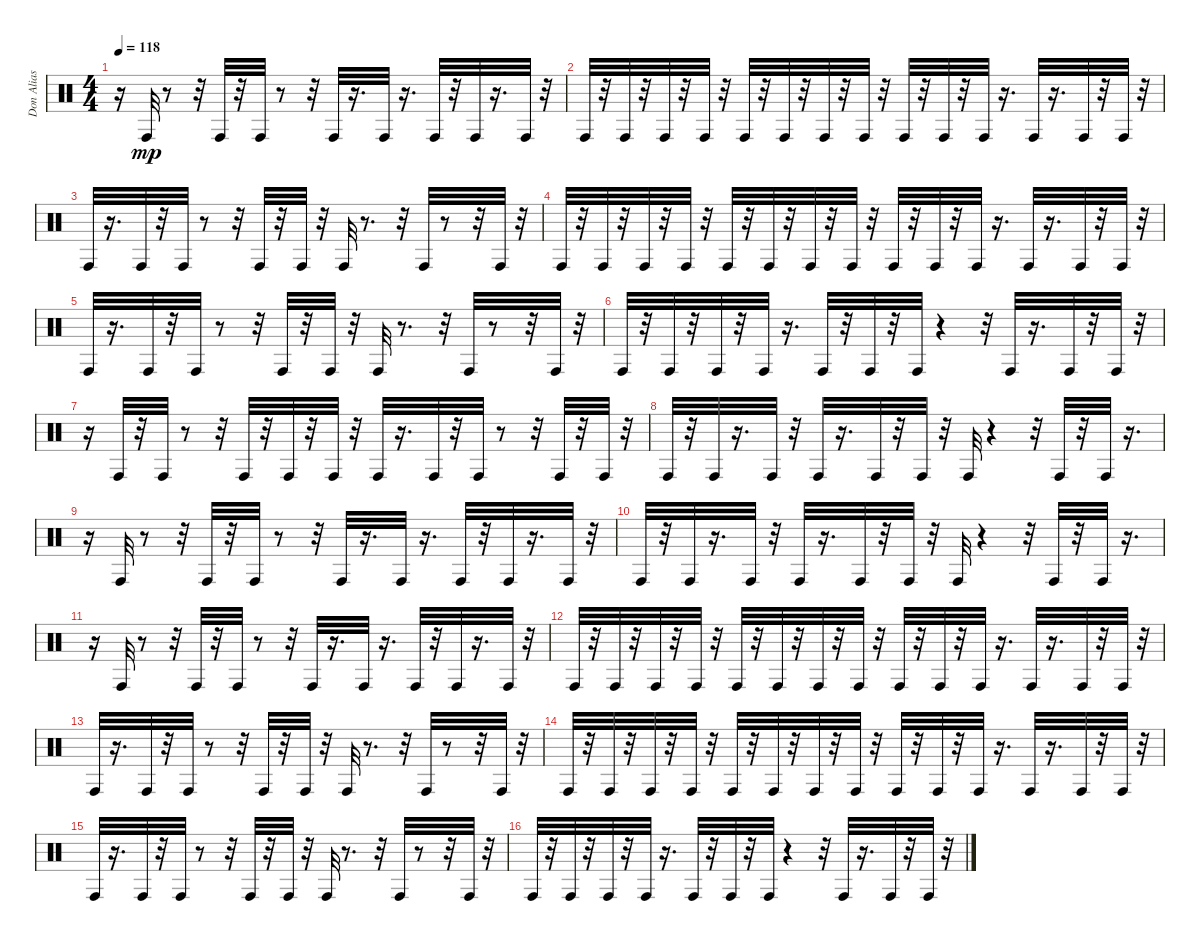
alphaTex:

\track ("Don Alias" "Don Alias") {instrument percussion}
\staff {score}
\articulation defaults
\ts (4 4)
\tempo 118
\clef neutral
\ks c
r.16{dy mp} "Conga high (hit)".32 r.8 r.32 "Conga high (hit)".32 r.32 "Conga high (hit)".32 r.8 r.32 "Conga high (hit)".32 r.16{d} "Conga high (hit)".32 r.16{d} "Conga high (hit)".32 r.32 "Conga high (hit)".32 r.16{d} "Conga high (hit)".32 r.32 |
"Conga high (hit)".32 r.32 "Conga high (hit)".32 r.32 "Conga high (hit)".32 r.32 "Conga high (hit)".32 r.32 "Conga high (hit)".32 r.32 "Conga high (hit)".32 r.32 "Conga high (hit)".32 r.32 "Conga high (hit)".32 r.32 "Conga high (hit)".32 r.32 "Conga high (hit)".32 r.32 "Conga high (hit)".32 r.16{d} "Conga high (hit)".32 r.16{d} "Conga high (hit)".32 r.32 "Conga high (hit)".32 r.32 |
"Conga high (hit)".32 r.16{d} "Conga high (hit)".32 r.32 "Conga high (hit)".32 r.8 r.32 "Conga high (hit)".32 r.32 "Conga high (hit)".32 r.32 "Conga high (hit)".32 r.8{d} r.32 "Conga high (hit)".32 r.8 r.32 "Conga high (hit)".32 r.32 |
"Conga high (hit)".32 r.32 "Conga high (hit)".32 r.32 "Conga high (hit)".32 r.32 "Conga high (hit)".32 r.32 "Conga high (hit)".32 r.32 "Conga high (hit)".32 r.32 "Conga high (hit)".32 r.32 "Conga high (hit)".32 r.32 "Conga high (hit)".32 r.32 "Conga high (hit)".32 r.32 "Conga high (hit)".32 r.16{d} "Conga high (hit)".32 r.16{d} "Conga high (hit)".32 r.32 "Conga high (hit)".32 r.32 |
"Conga high (hit)".32 r.16{d} "Conga high (hit)".32 r.32 "Conga high (hit)".32 r.8 r.32 "Conga high (hit)".32 r.32 "Conga high (hit)".32 r.32 "Conga high (hit)".32 r.8{d} r.32 "Conga high (hit)".32 r.8 r.32 "Conga high (hit)".32 r.32 |
"Conga high (hit)".32 r.32 "Conga high (hit)".32 r.32 "Conga high (hit)".32 r.32 "Conga high (hit)".32 r.16{d} "Conga high (hit)".32 r.32 "Conga high (hit)".32 r.32 "Conga high (hit)".32 r.4 r.32 "Conga high (hit)".32 r.16{d} "Conga high (hit)".32 r.32 "Conga high (hit)".32 r.32 |
r.16 "Conga high (hit)".32 r.32 "Conga high (hit)".32 r.8 r.32 "Conga high (hit)".32 r.32 "Conga high (hit)".32 r.32 "Conga high (hit)".32 r.32 "Conga high (hit)".32 r.16{d} "Conga high (hit)".32 r.32 "Conga high (hit)".32 r.8 r.32 "Conga high (hit)".32 r.32 "Conga high (hit)".32 r.32 |
"Conga high (hit)".32 r.32 "Conga high (hit)".32 r.16{d} "Conga high (hit)".32 r.32 "Conga high (hit)".32 r.16{d} "Conga high (hit)".32 r.32 "Conga high (hit)".32 r.32 "Conga high (hit)".32 r.4 r.32 "Conga high (hit)".32 r.32 "Conga high (hit)".32 r.16{d} |
r.16 "Conga high (hit)".32 r.8 r.32 "Conga high (hit)".32 r.32 "Conga high (hit)".32 r.8 r.32 "Conga high (hit)".32 r.16{d} "Conga high (hit)".32 r.16{d} "Conga high (hit)".32 r.32 "Conga high (hit)".32 r.16{d} "Conga high (hit)".32 r.32 |
"Conga high (hit)".32 r.32 "Conga high (hit)".32 r.16{d} "Conga high (hit)".32 r.32 "Conga high (hit)".32 r.16{d} "Conga high (hit)".32 r.32 "Conga high (hit)".32 r.32 "Conga high (hit)".32 r.4 r.32 "Conga high (hit)".32 r.32 "Conga high (hit)".32 r.16{d} |
r.16 "Conga high (hit)".32 r.8 r.32 "Conga high (hit)".32 r.32 "Conga high (hit)".32 r.8 r.32 "Conga high (hit)".32 r.16{d} "Conga high (hit)".32 r.16{d} "Conga high (hit)".32 r.32 "Conga high (hit)".32 r.16{d} "Conga high (hit)".32 r.32 |
"Conga high (hit)".32 r.32 "Conga high (hit)".32 r.32 "Conga high (hit)".32 r.32 "Conga high (hit)".32 r.32 "Conga high (hit)".32 r.32 "Conga high (hit)".32 r.32 "Conga high (hit)".32 r.32 "Conga high (hit)".32 r.32 "Conga high (hit)".32 r.32 "Conga high (hit)".32 r.32 "Conga high (hit)".32 r.16{d} "Conga high (hit)".32 r.16{d} "Conga high (hit)".32 r.32 "Conga high (hit)".32 r.32 |
"Conga high (hit)".32 r.16{d} "Conga high (hit)".32 r.32 "Conga high (hit)".32 r.8 r.32 "Conga high (hit)".32 r.32 "Conga high (hit)".32 r.32 "Conga high (hit)".32 r.8{d} r.32 "Conga high (hit)".32 r.8 r.32 "Conga high (hit)".32 r.32 |
"Conga high (hit)".32 r.32 "Conga high (hit)".32 r.32 "Conga high (hit)".32 r.32 "Conga high (hit)".32 r.32 "Conga high (hit)".32 r.32 "Conga high (hit)".32 r.32 "Conga high (hit)".32 r.32 "Conga high (hit)".32 r.32 "Conga high (hit)".32 r.32 "Conga high (hit)".32 r.32 "Conga high (hit)".32 r.16{d} "Conga high (hit)".32 r.16{d} "Conga high (hit)".32 r.32 "Conga high (hit)".32 r.32 |
"Conga high (hit)".32 r.16{d} "Conga high (hit)".32 r.32 "Conga high (hit)".32 r.8 r.32 "Conga high (hit)".32 r.32 "Conga high (hit)".32 r.32 "Conga high (hit)".32 r.8{d} r.32 "Conga high (hit)".32 r.8 r.32 "Conga high (hit)".32 r.32 |
"Conga high (hit)".32 r.32 "Conga high (hit)".32 r.32 "Conga high (hit)".32 r.32 "Conga high (hit)".32 r.16{d} "Conga high (hit)".32 r.32 "Conga high (hit)".32 r.32 "Conga high (hit)".32 r.4 r.32 "Conga high (hit)".32 r.16{d} "Conga high (hit)".32 r.32 "Conga high (hit)".32 r.32
